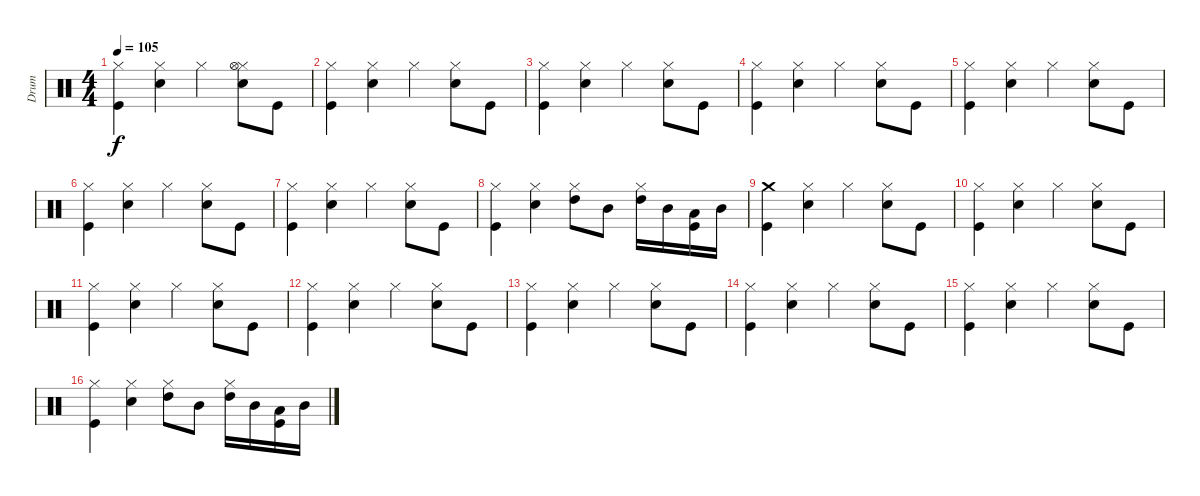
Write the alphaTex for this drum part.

\track ("Drum" "Drum") {instrument percussion}
\staff {score}
\articulation defaults
\ts (4 4)
\tempo 105
\clef neutral
\ks c
("Hi-Hat (closed)" "Kick (hit)").4{dy f} ("Hi-Hat (closed)" "Snare (hit) 2").4 "Hi-Hat (closed)".4 ("Hi-Hat (closed)" "Snare (hit) 2" "Hi-Hat (open)").8 "Kick (hit)".8 |
("Hi-Hat (closed)" "Kick (hit)").4 ("Hi-Hat (closed)" "Snare (hit) 2").4 "Hi-Hat (closed)".4 ("Hi-Hat (closed)" "Snare (hit) 2").8 "Kick (hit)".8 |
("Hi-Hat (closed)" "Kick (hit)").4 ("Hi-Hat (closed)" "Snare (hit) 2").4 "Hi-Hat (closed)".4 ("Hi-Hat (closed)" "Snare (hit) 2").8 "Kick (hit)".8 |
("Hi-Hat (closed)" "Kick (hit)").4 ("Hi-Hat (closed)" "Snare (hit) 2").4 "Hi-Hat (closed)".4 ("Hi-Hat (closed)" "Snare (hit) 2").8 "Kick (hit)".8 |
("Hi-Hat (closed)" "Kick (hit)").4 ("Hi-Hat (closed)" "Snare (hit) 2").4 "Hi-Hat (closed)".4 ("Hi-Hat (closed)" "Snare (hit) 2").8 "Kick (hit)".8 |
("Hi-Hat (closed)" "Kick (hit)").4 ("Hi-Hat (closed)" "Snare (hit) 2").4 "Hi-Hat (closed)".4 ("Hi-Hat (closed)" "Snare (hit) 2").8 "Kick (hit)".8 |
("Hi-Hat (closed)" "Kick (hit)").4 ("Hi-Hat (closed)" "Snare (hit) 2").4 "Hi-Hat (closed)".4 ("Hi-Hat (closed)" "Snare (hit) 2").8 "Kick (hit)".8 |
("Hi-Hat (closed)" "Kick (hit)").4 ("Hi-Hat (closed)" "Snare (hit) 2").4 ("Hi-Hat (closed)" "High Tom (hit)").8 "Mid Tom (hit)".8 ("Hi-Hat (closed)" "High Tom (hit)").16 "Mid Tom (hit)".16 ("Low Tom (hit)" "Kick (hit)").16 "Mid Tom (hit)".16 |
("Crash medium (hit)" "Kick (hit)").4 ("Hi-Hat (closed)" "Snare (hit) 2").4 "Hi-Hat (closed)".4 ("Hi-Hat (closed)" "Snare (hit) 2").8 "Kick (hit)".8 |
("Hi-Hat (closed)" "Kick (hit)").4 ("Hi-Hat (closed)" "Snare (hit) 2").4 "Hi-Hat (closed)".4 ("Hi-Hat (closed)" "Snare (hit) 2").8 "Kick (hit)".8 |
("Hi-Hat (closed)" "Kick (hit)").4 ("Hi-Hat (closed)" "Snare (hit) 2").4 "Hi-Hat (closed)".4 ("Hi-Hat (closed)" "Snare (hit) 2").8 "Kick (hit)".8 |
("Hi-Hat (closed)" "Kick (hit)").4 ("Hi-Hat (closed)" "Snare (hit) 2").4 "Hi-Hat (closed)".4 ("Hi-Hat (closed)" "Snare (hit) 2").8 "Kick (hit)".8 |
("Hi-Hat (closed)" "Kick (hit)").4 ("Hi-Hat (closed)" "Snare (hit) 2").4 "Hi-Hat (closed)".4 ("Hi-Hat (closed)" "Snare (hit) 2").8 "Kick (hit)".8 |
("Hi-Hat (closed)" "Kick (hit)").4 ("Hi-Hat (closed)" "Snare (hit) 2").4 "Hi-Hat (closed)".4 ("Hi-Hat (closed)" "Snare (hit) 2").8 "Kick (hit)".8 |
("Hi-Hat (closed)" "Kick (hit)").4 ("Hi-Hat (closed)" "Snare (hit) 2").4 "Hi-Hat (closed)".4 ("Hi-Hat (closed)" "Snare (hit) 2").8 "Kick (hit)".8 |
("Hi-Hat (closed)" "Kick (hit)").4 ("Hi-Hat (closed)" "Snare (hit) 2").4 ("Hi-Hat (closed)" "High Tom (hit)").8 "Mid Tom (hit)".8 ("Hi-Hat (closed)" "High Tom (hit)").16 "Mid Tom (hit)".16 ("Low Tom (hit)" "Kick (hit)").16 "Mid Tom (hit)".16
